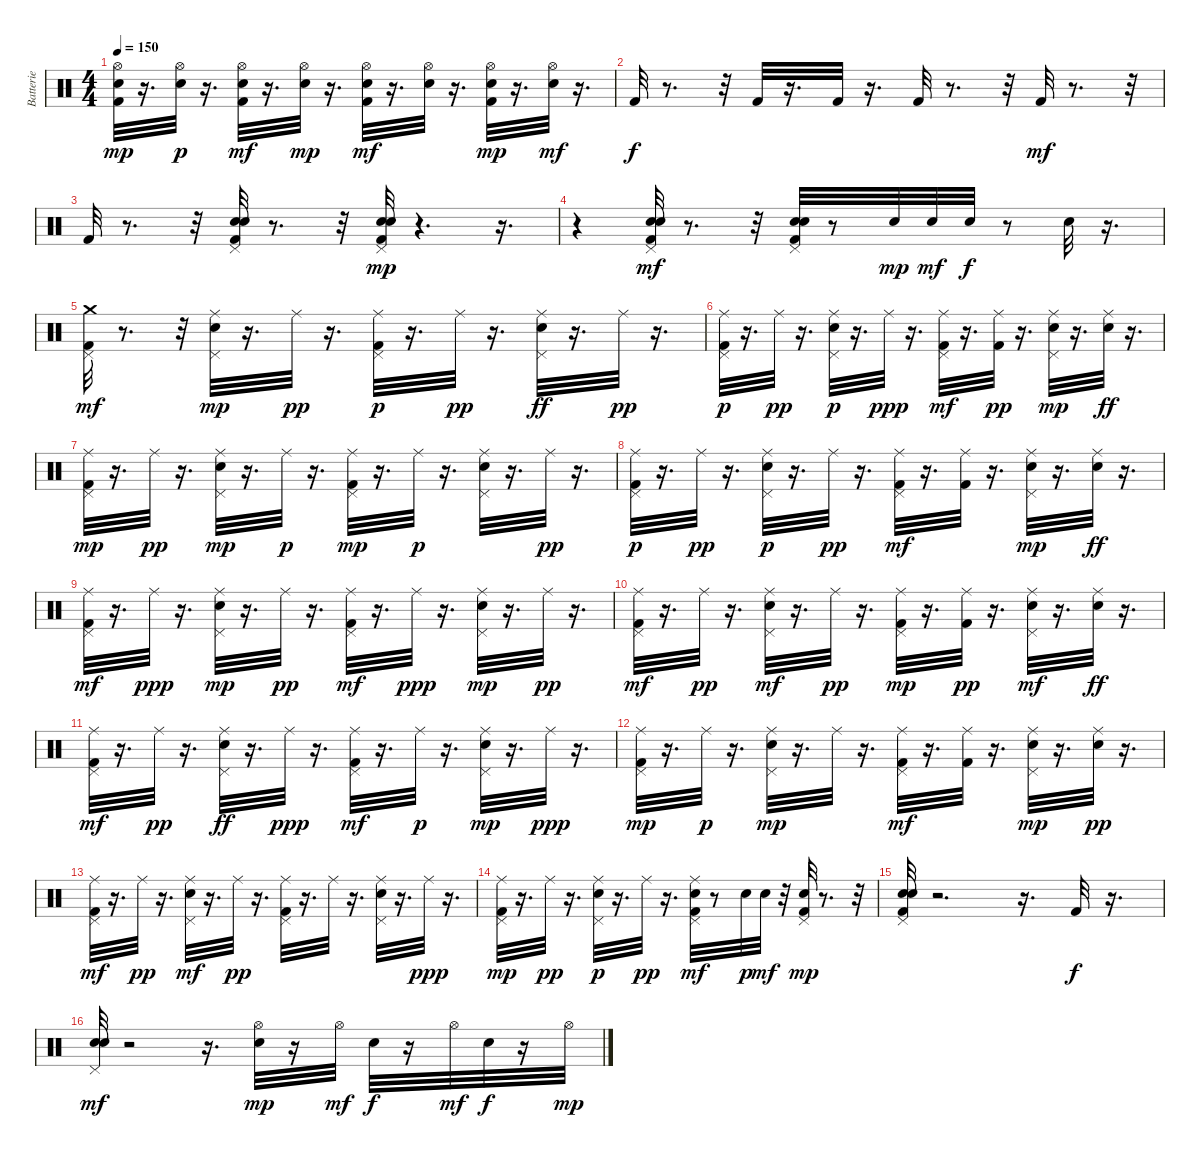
\track ("Batterie" "Batterie") {instrument percussion}
\staff {score}
\articulation defaults
\ts (4 4)
\tempo 150
\clef neutral
\ks c
("Kick (hit) 2" "Hi-Hat (open)" "Electric Snare (hit)").32{dy mp} r.16{d} ("Hi-Hat (open)" "Electric Snare (hit)").32{dy p} r.16{d} ("Hi-Hat (open)" "Electric Snare (hit)" "Kick (hit) 2").32{dy mf} r.16{d} ("Hi-Hat (open)" "Electric Snare (hit)").32{dy mp} r.16{d} ("Hi-Hat (open)" "Kick (hit) 2" "Electric Snare (hit)").32{dy mf} r.16{d} ("Hi-Hat (open)" "Electric Snare (hit)").32 r.16{d} ("Electric Snare (hit)" "Hi-Hat (open)" "Kick (hit) 2").32{dy mp} r.16{d} ("Electric Snare (hit)" "Hi-Hat (open)").32{dy mf} r.16{d} |
"Kick (hit) 2".32{dy f} r.8{d} r.32 "Kick (hit) 2".32 r.16{d} "Kick (hit) 2".32 r.16{d} "Kick (hit) 2".32 r.8{d} r.32 "Kick (hit) 2".32{dy mf} r.8{d} r.32 |
"Kick (hit) 2".32 r.8{d} r.32 ("Electric Snare (hit)" "Kick (hit) 2" "Pedal Hi-Hat (hit)" "Electric Snare (hit)").32 r.8{d} r.32 ("Electric Snare (hit)" "Pedal Hi-Hat (hit)" "Kick (hit) 2" "Electric Snare (hit)").32{dy mp} r.4{d} r.16{d} |
r.4 ("Electric Snare (hit)" "Pedal Hi-Hat (hit)" "Kick (hit) 2" "Electric Snare (hit)").32{dy mf} r.8{d} r.32 ("Electric Snare (hit)" "Pedal Hi-Hat (hit)" "Electric Snare (hit)" "Kick (hit) 2").32 r.8 "Electric Snare (hit)".32{dy mp} "Electric Snare (hit)".32{dy mf} "Electric Snare (hit)".32{dy f} r.8 "Electric Snare (hit)".32 r.16{d} |
("Pedal Hi-Hat (hit)" "Kick (hit) 2" "Crash medium (hit)").32{dy mf} r.8{d} r.32 ("Electric Snare (hit)" "Pedal Hi-Hat (hit)" "Ride (middle)").32{dy mp} r.16{d} "Ride (middle)".32{dy pp} r.16{d} ("Pedal Hi-Hat (hit)" "Kick (hit) 2" "Ride (middle)").32{dy p} r.16{d} "Ride (middle)".32{dy pp} r.16{d} ("Pedal Hi-Hat (hit)" "Ride (middle)" "Electric Snare (hit)").32{dy ff} r.16{d} "Ride (middle)".32{dy pp} r.16{d} |
("Pedal Hi-Hat (hit)" "Ride (middle)" "Kick (hit) 2").32{dy p} r.16{d} "Ride (middle)".32{dy pp} r.16{d} ("Pedal Hi-Hat (hit)" "Electric Snare (hit)" "Ride (middle)").32{dy p} r.16{d} "Ride (middle)".32{dy ppp} r.16{d} ("Ride (middle)" "Kick (hit) 2" "Pedal Hi-Hat (hit)").32{dy mf} r.16{d} ("Ride (middle)" "Kick (hit) 2").32{dy pp} r.16{d} ("Pedal Hi-Hat (hit)" "Ride (middle)" "Electric Snare (hit)").32{dy mp} r.16{d} ("Ride (middle)" "Electric Snare (hit)").32{dy ff} r.16{d} |
("Kick (hit) 2" "Ride (middle)" "Pedal Hi-Hat (hit)").32{dy mp} r.16{d} "Ride (middle)".32{dy pp} r.16{d} ("Electric Snare (hit)" "Ride (middle)" "Pedal Hi-Hat (hit)").32{dy mp} r.16{d} "Ride (middle)".32{dy p} r.16{d} ("Pedal Hi-Hat (hit)" "Kick (hit) 2" "Ride (middle)").32{dy mp} r.16{d} "Ride (middle)".32{dy p} r.16{d} ("Pedal Hi-Hat (hit)" "Electric Snare (hit)" "Ride (middle)").32 r.16{d} "Ride (middle)".32{dy pp} r.16{d} |
("Pedal Hi-Hat (hit)" "Kick (hit) 2" "Ride (middle)").32{dy p} r.16{d} "Ride (middle)".32{dy pp} r.16{d} ("Electric Snare (hit)" "Pedal Hi-Hat (hit)" "Ride (middle)").32{dy p} r.16{d} "Ride (middle)".32{dy pp} r.16{d} ("Kick (hit) 2" "Ride (middle)" "Pedal Hi-Hat (hit)").32{dy mf} r.16{d} ("Ride (middle)" "Kick (hit) 2").32 r.16{d} ("Electric Snare (hit)" "Ride (middle)" "Pedal Hi-Hat (hit)").32{dy mp} r.16{d} ("Ride (middle)" "Electric Snare (hit)").32{dy ff} r.16{d} |
("Kick (hit) 2" "Ride (middle)" "Pedal Hi-Hat (hit)").32{dy mf} r.16{d} "Ride (middle)".32{dy ppp} r.16{d} ("Ride (middle)" "Electric Snare (hit)" "Pedal Hi-Hat (hit)").32{dy mp} r.16{d} "Ride (middle)".32{dy pp} r.16{d} ("Kick (hit) 2" "Ride (middle)" "Pedal Hi-Hat (hit)").32{dy mf} r.16{d} "Ride (middle)".32{dy ppp} r.16{d} ("Ride (middle)" "Electric Snare (hit)" "Pedal Hi-Hat (hit)").32{dy mp} r.16{d} "Ride (middle)".32{dy pp} r.16{d} |
("Kick (hit) 2" "Ride (middle)" "Pedal Hi-Hat (hit)").32{dy mf} r.16{d} "Ride (middle)".32{dy pp} r.16{d} ("Electric Snare (hit)" "Ride (middle)" "Pedal Hi-Hat (hit)").32{dy mf} r.16{d} "Ride (middle)".32{dy pp} r.16{d} ("Kick (hit) 2" "Pedal Hi-Hat (hit)" "Ride (middle)").32{dy mp} r.16{d} ("Kick (hit) 2" "Ride (middle)").32{dy pp} r.16{d} ("Ride (middle)" "Pedal Hi-Hat (hit)" "Electric Snare (hit)").32{dy mf} r.16{d} ("Ride (middle)" "Electric Snare (hit)").32{dy ff} r.16{d} |
("Kick (hit) 2" "Pedal Hi-Hat (hit)" "Ride (middle)").32{dy mf} r.16{d} "Ride (middle)".32{dy pp} r.16{d} ("Pedal Hi-Hat (hit)" "Ride (middle)" "Electric Snare (hit)").32{dy ff} r.16{d} "Ride (middle)".32{dy ppp} r.16{d} ("Kick (hit) 2" "Pedal Hi-Hat (hit)" "Ride (middle)").32{dy mf} r.16{d} "Ride (middle)".32{dy p} r.16{d} ("Electric Snare (hit)" "Pedal Hi-Hat (hit)" "Ride (middle)").32{dy mp} r.16{d} "Ride (middle)".32{dy ppp} r.16{d} |
("Pedal Hi-Hat (hit)" "Ride (middle)" "Kick (hit) 2").32{dy mp} r.16{d} "Ride (middle)".32{dy p} r.16{d} ("Electric Snare (hit)" "Pedal Hi-Hat (hit)" "Ride (middle)").32{dy mp} r.16{d} "Ride (middle)".32 r.16{d} ("Pedal Hi-Hat (hit)" "Kick (hit) 2" "Ride (middle)").32{dy mf} r.16{d} ("Ride (middle)" "Kick (hit) 2").32 r.16{d} ("Electric Snare (hit)" "Pedal Hi-Hat (hit)" "Ride (middle)").32{dy mp} r.16{d} ("Electric Snare (hit)" "Ride (middle)").32{dy pp} r.16{d} |
("Kick (hit) 2" "Pedal Hi-Hat (hit)" "Ride (middle)").32{dy mf} r.16{d} "Ride (middle)".32{dy pp} r.16{d} ("Electric Snare (hit)" "Ride (middle)" "Pedal Hi-Hat (hit)").32{dy mf} r.16{d} "Ride (middle)".32{dy pp} r.16{d} ("Kick (hit) 2" "Pedal Hi-Hat (hit)" "Ride (middle)").32 r.16{d} "Ride (middle)".32 r.16{d} ("Electric Snare (hit)" "Pedal Hi-Hat (hit)" "Ride (middle)").32 r.16{d} "Ride (middle)".32{dy ppp} r.16{d} |
("Kick (hit) 2" "Ride (middle)" "Pedal Hi-Hat (hit)").32{dy mp} r.16{d} "Ride (middle)".32{dy pp} r.16{d} ("Electric Snare (hit)" "Pedal Hi-Hat (hit)" "Ride (middle)").32{dy p} r.16{d} "Ride (middle)".32{dy pp} r.16{d} ("Electric Snare (hit)" "Ride (middle)" "Pedal Hi-Hat (hit)" "Kick (hit) 2").32{dy mf} r.8 "Electric Snare (hit)".32{dy p} "Electric Snare (hit)".32{dy mf} r.32 ("Electric Snare (hit)" "Kick (hit) 2" "Pedal Hi-Hat (hit)").32{dy mp} r.8{d} r.32 |
("Electric Snare (hit)" "Pedal Hi-Hat (hit)" "Kick (hit) 2" "Electric Snare (hit)").32 r.2{d} r.16{d} "Kick (hit) 2".32{dy f} r.16{d} |
("Electric Snare (hit)" "Pedal Hi-Hat (hit)" "Electric Snare (hit)").32{dy mf} r.2 r.16{d} ("Hi-Hat (open)" "Electric Snare (hit)").32{dy mp} r.16 "Hi-Hat (open)".32{dy mf} "Electric Snare (hit)".32{dy f} r.16 "Hi-Hat (open)".32{dy mf} "Electric Snare (hit)".32{dy f} r.16 "Hi-Hat (open)".32{dy mp}
